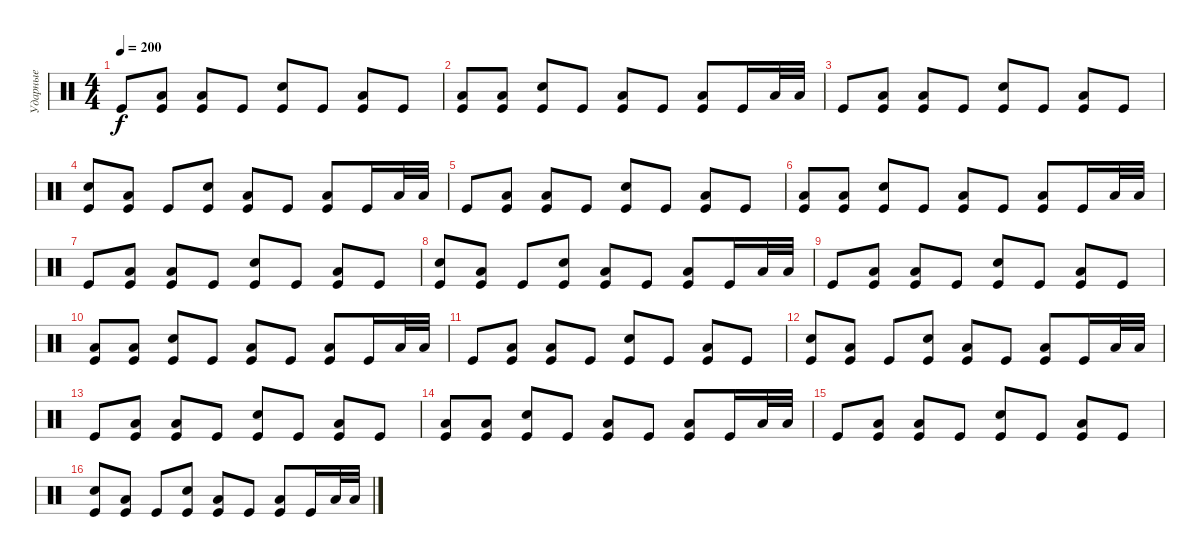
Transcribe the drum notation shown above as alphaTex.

\track ("Ударные" "Ударные") {instrument percussion}
\staff {score}
\articulation defaults
\ts (4 4)
\tempo 200
\clef neutral
\ks c "Kick (hit)".8{dy f}
("Low Tom (hit)" "Kick (hit)").8 ("Low Tom (hit)" "Kick (hit)").8 "Kick (hit)".8 ("Electric Snare (hit)" "Kick (hit)").8 "Kick (hit)".8 ("Low Tom (hit)" "Kick (hit)").8 "Kick (hit)".8 |
("Low Tom (hit)" "Kick (hit)").8 ("Low Tom (hit)" "Kick (hit)").8 ("Electric Snare (hit)" "Kick (hit)").8 "Kick (hit)".8 ("Low Tom (hit)" "Kick (hit)").8 "Kick (hit)".8 ("Low Tom (hit)" "Kick (hit)").8 "Kick (hit)".16 "Low Tom (hit)".32 "Low Tom (hit)".32 |
"Kick (hit)".8 ("Low Tom (hit)" "Kick (hit)").8 ("Low Tom (hit)" "Kick (hit)").8 "Kick (hit)".8 ("Electric Snare (hit)" "Kick (hit)").8 "Kick (hit)".8 ("Low Tom (hit)" "Kick (hit)").8 "Kick (hit)".8 |
("Electric Snare (hit)" "Kick (hit)").8 ("Low Tom (hit)" "Kick (hit)").8 "Kick (hit)".8 ("Electric Snare (hit)" "Kick (hit)").8 ("Low Tom (hit)" "Kick (hit)").8 "Kick (hit)".8 ("Low Tom (hit)" "Kick (hit)").8 "Kick (hit)".16 "Low Tom (hit)".32 "Low Tom (hit)".32 |
"Kick (hit)".8 ("Low Tom (hit)" "Kick (hit)").8 ("Low Tom (hit)" "Kick (hit)").8 "Kick (hit)".8 ("Electric Snare (hit)" "Kick (hit)").8 "Kick (hit)".8 ("Low Tom (hit)" "Kick (hit)").8 "Kick (hit)".8 |
("Low Tom (hit)" "Kick (hit)").8 ("Low Tom (hit)" "Kick (hit)").8 ("Electric Snare (hit)" "Kick (hit)").8 "Kick (hit)".8 ("Low Tom (hit)" "Kick (hit)").8 "Kick (hit)".8 ("Low Tom (hit)" "Kick (hit)").8 "Kick (hit)".16 "Low Tom (hit)".32 "Low Tom (hit)".32 |
"Kick (hit)".8 ("Low Tom (hit)" "Kick (hit)").8 ("Low Tom (hit)" "Kick (hit)").8 "Kick (hit)".8 ("Electric Snare (hit)" "Kick (hit)").8 "Kick (hit)".8 ("Low Tom (hit)" "Kick (hit)").8 "Kick (hit)".8 |
("Electric Snare (hit)" "Kick (hit)").8 ("Low Tom (hit)" "Kick (hit)").8 "Kick (hit)".8 ("Electric Snare (hit)" "Kick (hit)").8 ("Low Tom (hit)" "Kick (hit)").8 "Kick (hit)".8 ("Low Tom (hit)" "Kick (hit)").8 "Kick (hit)".16 "Low Tom (hit)".32 "Low Tom (hit)".32 |
"Kick (hit)".8 ("Low Tom (hit)" "Kick (hit)").8 ("Low Tom (hit)" "Kick (hit)").8 "Kick (hit)".8 ("Electric Snare (hit)" "Kick (hit)").8 "Kick (hit)".8 ("Low Tom (hit)" "Kick (hit)").8 "Kick (hit)".8 |
("Low Tom (hit)" "Kick (hit)").8 ("Low Tom (hit)" "Kick (hit)").8 ("Electric Snare (hit)" "Kick (hit)").8 "Kick (hit)".8 ("Low Tom (hit)" "Kick (hit)").8 "Kick (hit)".8 ("Low Tom (hit)" "Kick (hit)").8 "Kick (hit)".16 "Low Tom (hit)".32 "Low Tom (hit)".32 |
"Kick (hit)".8 ("Low Tom (hit)" "Kick (hit)").8 ("Low Tom (hit)" "Kick (hit)").8 "Kick (hit)".8 ("Electric Snare (hit)" "Kick (hit)").8 "Kick (hit)".8 ("Low Tom (hit)" "Kick (hit)").8 "Kick (hit)".8 |
("Electric Snare (hit)" "Kick (hit)").8 ("Low Tom (hit)" "Kick (hit)").8 "Kick (hit)".8 ("Electric Snare (hit)" "Kick (hit)").8 ("Low Tom (hit)" "Kick (hit)").8 "Kick (hit)".8 ("Low Tom (hit)" "Kick (hit)").8 "Kick (hit)".16 "Low Tom (hit)".32 "Low Tom (hit)".32 |
"Kick (hit)".8 ("Low Tom (hit)" "Kick (hit)").8 ("Low Tom (hit)" "Kick (hit)").8 "Kick (hit)".8 ("Electric Snare (hit)" "Kick (hit)").8 "Kick (hit)".8 ("Low Tom (hit)" "Kick (hit)").8 "Kick (hit)".8 |
("Low Tom (hit)" "Kick (hit)").8 ("Low Tom (hit)" "Kick (hit)").8 ("Electric Snare (hit)" "Kick (hit)").8 "Kick (hit)".8 ("Low Tom (hit)" "Kick (hit)").8 "Kick (hit)".8 ("Low Tom (hit)" "Kick (hit)").8 "Kick (hit)".16 "Low Tom (hit)".32 "Low Tom (hit)".32 |
"Kick (hit)".8 ("Low Tom (hit)" "Kick (hit)").8 ("Low Tom (hit)" "Kick (hit)").8 "Kick (hit)".8 ("Electric Snare (hit)" "Kick (hit)").8 "Kick (hit)".8 ("Low Tom (hit)" "Kick (hit)").8 "Kick (hit)".8 |
("Electric Snare (hit)" "Kick (hit)").8 ("Low Tom (hit)" "Kick (hit)").8 "Kick (hit)".8 ("Electric Snare (hit)" "Kick (hit)").8 ("Low Tom (hit)" "Kick (hit)").8 "Kick (hit)".8 ("Low Tom (hit)" "Kick (hit)").8 "Kick (hit)".16 "Low Tom (hit)".32 "Low Tom (hit)".32
